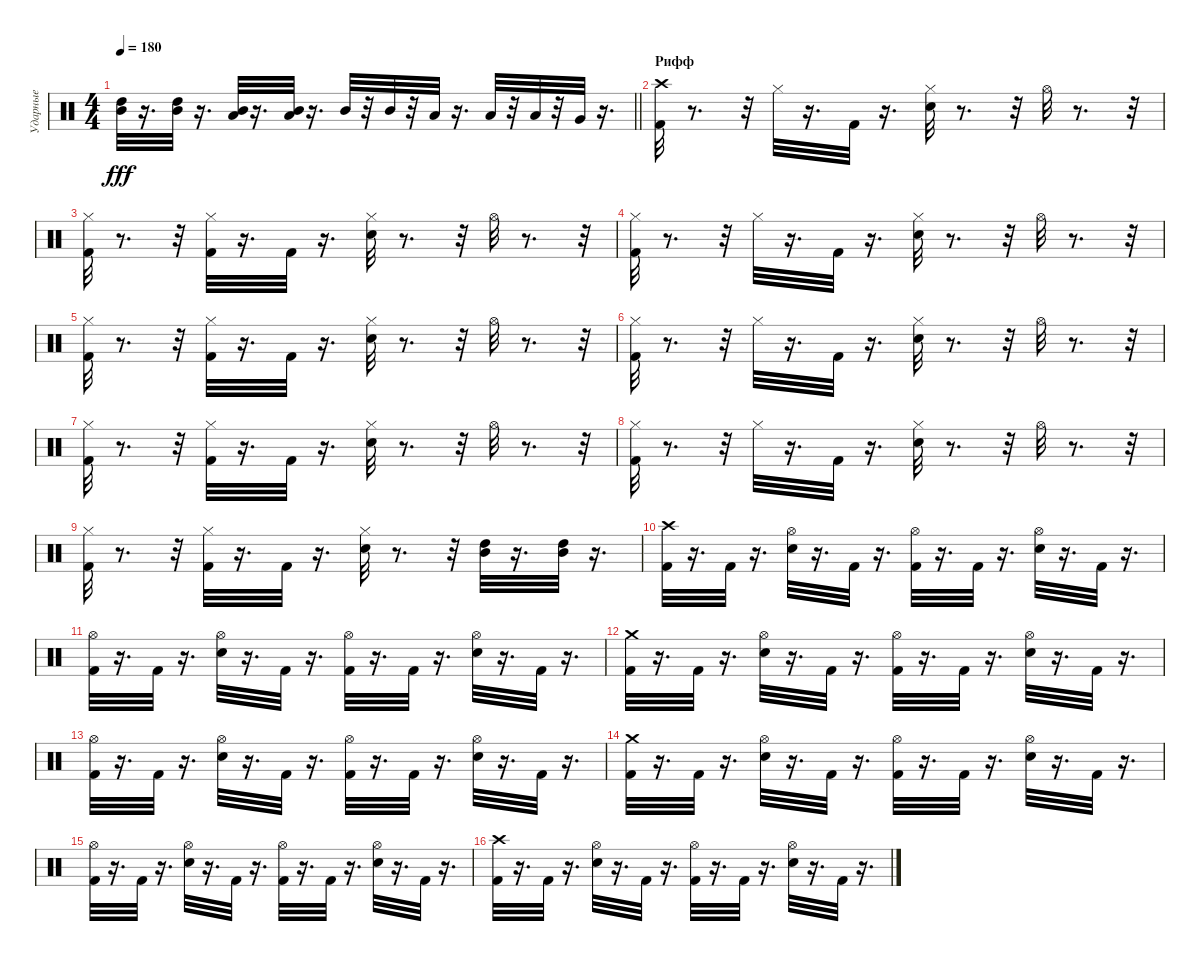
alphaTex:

\track ("Ударные" "Ударные") {instrument percussion}
\staff {score}
\articulation defaults
\ts (4 4)
\tempo 180
\clef neutral
\barLineRight lightlight
\ks c
("High Tom (hit)" "Mid Tom (hit)").32{dy fff} r.16{d} ("High Tom (hit)" "Mid Tom (hit)").32 r.16{d} ("Low Tom (hit)" "Mid Tom (hit)").32 r.16{d} ("Low Tom (hit)" "Mid Tom (hit)").32 r.16{d} "Mid Tom (hit)".32 r.32 "Mid Tom (hit)".32 r.32 "Low Tom (hit)".32 r.16{d} "Low Tom (hit)".32 r.32 "Low Tom (hit)".32 r.32 "Very Low Tom (hit)".32 r.16{d} |
\section ("" "Рифф")
("Crash high (hit)" "Kick (hit) 2").32 r.8{d} r.32 "Hi-Hat (closed)".32 r.16{d} "Kick (hit) 2".32 r.16{d} ("Snare (hit) 2" "Hi-Hat (closed)").32 r.8{d} r.32 "Hi-Hat (open)".32 r.8{d} r.32 |
("Kick (hit) 2" "Hi-Hat (closed)").32 r.8{d} r.32 ("Hi-Hat (closed)" "Kick (hit) 2").32 r.16{d} "Kick (hit) 2".32 r.16{d} ("Snare (hit) 2" "Hi-Hat (closed)").32 r.8{d} r.32 "Hi-Hat (open)".32 r.8{d} r.32 |
("Hi-Hat (closed)" "Kick (hit) 2").32 r.8{d} r.32 "Hi-Hat (closed)".32 r.16{d} "Kick (hit) 2".32 r.16{d} ("Snare (hit) 2" "Hi-Hat (closed)").32 r.8{d} r.32 "Hi-Hat (open)".32 r.8{d} r.32 |
("Hi-Hat (closed)" "Kick (hit) 2").32 r.8{d} r.32 ("Hi-Hat (closed)" "Kick (hit) 2").32 r.16{d} "Kick (hit) 2".32 r.16{d} ("Hi-Hat (closed)" "Snare (hit) 2").32 r.8{d} r.32 "Hi-Hat (open)".32 r.8{d} r.32 |
("Kick (hit) 2" "Hi-Hat (closed)").32 r.8{d} r.32 "Hi-Hat (closed)".32 r.16{d} "Kick (hit) 2".32 r.16{d} ("Snare (hit) 2" "Hi-Hat (closed)").32 r.8{d} r.32 "Hi-Hat (open)".32 r.8{d} r.32 |
("Kick (hit) 2" "Hi-Hat (closed)").32 r.8{d} r.32 ("Hi-Hat (closed)" "Kick (hit) 2").32 r.16{d} "Kick (hit) 2".32 r.16{d} ("Hi-Hat (closed)" "Snare (hit) 2").32 r.8{d} r.32 "Hi-Hat (open)".32 r.8{d} r.32 |
("Kick (hit) 2" "Hi-Hat (closed)").32 r.8{d} r.32 "Hi-Hat (closed)".32 r.16{d} "Kick (hit) 2".32 r.16{d} ("Snare (hit) 2" "Hi-Hat (closed)").32 r.8{d} r.32 "Hi-Hat (open)".32 r.8{d} r.32 |
("Hi-Hat (closed)" "Kick (hit) 2").32 r.8{d} r.32 ("Kick (hit) 2" "Hi-Hat (closed)").32 r.16{d} "Kick (hit) 2".32 r.16{d} ("Hi-Hat (closed)" "Snare (hit) 2").32 r.8{d} r.32 ("High Tom (hit)" "Mid Tom (hit)").32 r.16{d} ("Mid Tom (hit)" "High Tom (hit)").32 r.16{d} |
("Kick (hit) 2" "Crash high (hit)").32 r.16{d} "Kick (hit) 2".32 r.16{d} ("Snare (hit) 2" "Hi-Hat (open)").32 r.16{d} "Kick (hit) 2".32 r.16{d} ("Hi-Hat (open)" "Kick (hit) 2").32 r.16{d} "Kick (hit) 2".32 r.16{d} ("Hi-Hat (open)" "Snare (hit) 2").32 r.16{d} "Kick (hit) 2".32 r.16{d} |
("Kick (hit) 2" "Hi-Hat (open)").32 r.16{d} "Kick (hit) 2".32 r.16{d} ("Hi-Hat (open)" "Snare (hit) 2").32 r.16{d} "Kick (hit) 2".32 r.16{d} ("Kick (hit) 2" "Hi-Hat (open)").32 r.16{d} "Kick (hit) 2".32 r.16{d} ("Hi-Hat (open)" "Snare (hit) 2").32 r.16{d} "Kick (hit) 2".32 r.16{d} |
("Crash medium (hit)" "Kick (hit) 2").32 r.16{d} "Kick (hit) 2".32 r.16{d} ("Snare (hit) 2" "Hi-Hat (open)").32 r.16{d} "Kick (hit) 2".32 r.16{d} ("Kick (hit) 2" "Hi-Hat (open)").32 r.16{d} "Kick (hit) 2".32 r.16{d} ("Snare (hit) 2" "Hi-Hat (open)").32 r.16{d} "Kick (hit) 2".32 r.16{d} |
("Kick (hit) 2" "Hi-Hat (open)").32 r.16{d} "Kick (hit) 2".32 r.16{d} ("Snare (hit) 2" "Hi-Hat (open)").32 r.16{d} "Kick (hit) 2".32 r.16{d} ("Kick (hit) 2" "Hi-Hat (open)").32 r.16{d} "Kick (hit) 2".32 r.16{d} ("Snare (hit) 2" "Hi-Hat (open)").32 r.16{d} "Kick (hit) 2".32 r.16{d} |
("Kick (hit) 2" "Crash medium (hit)").32 r.16{d} "Kick (hit) 2".32 r.16{d} ("Hi-Hat (open)" "Snare (hit) 2").32 r.16{d} "Kick (hit) 2".32 r.16{d} ("Hi-Hat (open)" "Kick (hit) 2").32 r.16{d} "Kick (hit) 2".32 r.16{d} ("Snare (hit) 2" "Hi-Hat (open)").32 r.16{d} "Kick (hit) 2".32 r.16{d} |
("Kick (hit) 2" "Hi-Hat (open)").32 r.16{d} "Kick (hit) 2".32 r.16{d} ("Hi-Hat (open)" "Snare (hit) 2").32 r.16{d} "Kick (hit) 2".32 r.16{d} ("Kick (hit) 2" "Hi-Hat (open)").32 r.16{d} "Kick (hit) 2".32 r.16{d} ("Hi-Hat (open)" "Snare (hit) 2").32 r.16{d} "Kick (hit) 2".32 r.16{d} |
("Kick (hit) 2" "Crash high (hit)").32 r.16{d} "Kick (hit) 2".32 r.16{d} ("Hi-Hat (open)" "Snare (hit) 2").32 r.16{d} "Kick (hit) 2".32 r.16{d} ("Kick (hit) 2" "Hi-Hat (open)").32 r.16{d} "Kick (hit) 2".32 r.16{d} ("Snare (hit) 2" "Hi-Hat (open)").32 r.16{d} "Kick (hit) 2".32 r.16{d}
